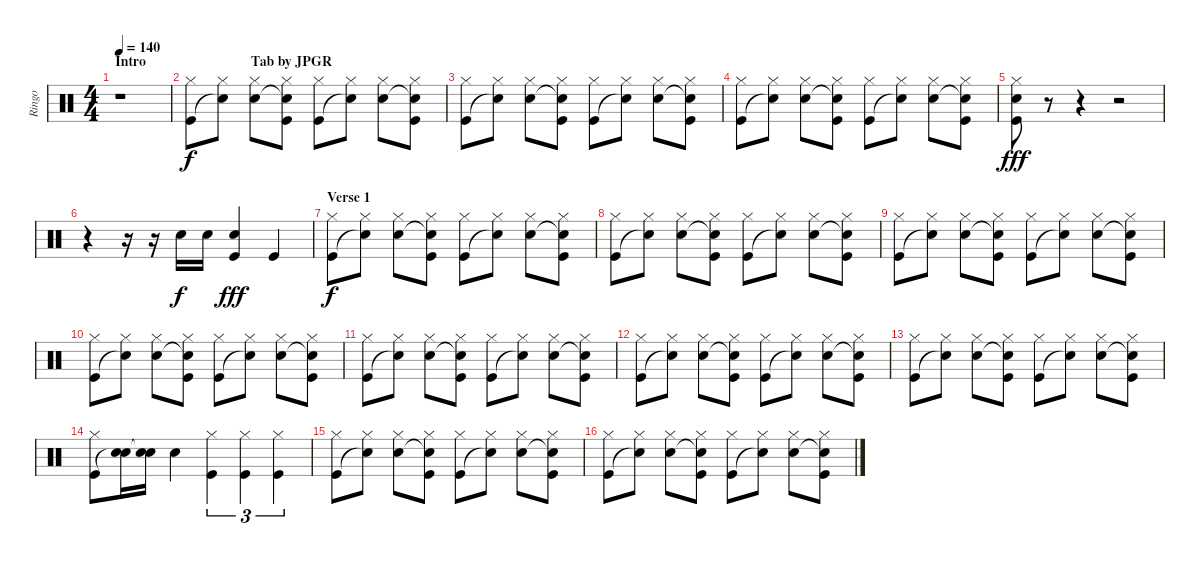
\track ("Ringo" "Ringo") {instrument percussion}
\staff {score}
\articulation defaults
\ts (4 4)
\section ("" "Intro                              Tab by JPGR")
\tempo 140
\clef neutral
\ks c
r.1{dy f} |
("Hi-Hat (closed)" "Kick (hit)").8 ("Hi-Hat (closed)" "Snare (hit)"{t}).8 ("Hi-Hat (closed)" "Snare (hit) 2").8 ("Hi-Hat (closed)" "Snare (hit)"{t} "Kick (hit)").8 ("Hi-Hat (closed)" "Kick (hit)").8 ("Hi-Hat (closed)" "Snare (hit)"{t}).8 ("Hi-Hat (closed)" "Snare (hit) 2").8 ("Hi-Hat (closed)" "Snare (hit)"{t} "Kick (hit)").8 |
("Hi-Hat (closed)" "Kick (hit)").8 ("Hi-Hat (closed)" "Snare (hit)"{t}).8 ("Hi-Hat (closed)" "Snare (hit) 2").8 ("Hi-Hat (closed)" "Snare (hit)"{t} "Kick (hit)").8 ("Hi-Hat (closed)" "Kick (hit)").8 ("Hi-Hat (closed)" "Snare (hit)"{t}).8 ("Hi-Hat (closed)" "Snare (hit) 2").8 ("Hi-Hat (closed)" "Snare (hit)"{t} "Kick (hit)").8 |
("Hi-Hat (closed)" "Kick (hit)").8 ("Hi-Hat (closed)" "Snare (hit)"{t}).8 ("Hi-Hat (closed)" "Snare (hit) 2").8 ("Hi-Hat (closed)" "Snare (hit)"{t} "Kick (hit)").8 ("Hi-Hat (closed)" "Kick (hit)").8 ("Hi-Hat (closed)" "Snare (hit)"{t}).8 ("Hi-Hat (closed)" "Snare (hit) 2").8 ("Hi-Hat (closed)" "Snare (hit)"{t} "Kick (hit)").8 |
("Hi-Hat (closed)" "Snare (hit) 2" "Kick (hit)").8{dy fff} r.8 r.4 r.2 |
r.4 r.16 r.16 "Snare (hit) 2".16{dy f} "Snare (hit) 2".16 ("Snare (hit) 2" "Kick (hit)").4{dy fff} "Kick (hit)".4 |
\section ("" "Verse 1")
("Hi-Hat (closed)" "Kick (hit)").8{dy f} ("Hi-Hat (closed)" "Snare (hit)"{t}).8 ("Hi-Hat (closed)" "Snare (hit) 2").8 ("Hi-Hat (closed)" "Snare (hit)"{t} "Kick (hit)").8 ("Hi-Hat (closed)" "Kick (hit)").8 ("Hi-Hat (closed)" "Snare (hit)"{t}).8 ("Hi-Hat (closed)" "Snare (hit) 2").8 ("Hi-Hat (closed)" "Snare (hit)"{t} "Kick (hit)").8 |
("Hi-Hat (closed)" "Kick (hit)").8 ("Hi-Hat (closed)" "Snare (hit)"{t}).8 ("Hi-Hat (closed)" "Snare (hit) 2").8 ("Hi-Hat (closed)" "Snare (hit)"{t} "Kick (hit)").8 ("Hi-Hat (closed)" "Kick (hit)").8 ("Hi-Hat (closed)" "Snare (hit)"{t}).8 ("Hi-Hat (closed)" "Snare (hit) 2").8 ("Hi-Hat (closed)" "Snare (hit)"{t} "Kick (hit)").8 |
("Hi-Hat (closed)" "Kick (hit)").8 ("Hi-Hat (closed)" "Snare (hit)"{t}).8 ("Hi-Hat (closed)" "Snare (hit) 2").8 ("Hi-Hat (closed)" "Snare (hit)"{t} "Kick (hit)").8 ("Hi-Hat (closed)" "Kick (hit)").8 ("Hi-Hat (closed)" "Snare (hit)"{t}).8 ("Hi-Hat (closed)" "Snare (hit) 2").8 ("Hi-Hat (closed)" "Snare (hit)"{t} "Kick (hit)").8 |
("Hi-Hat (closed)" "Kick (hit)").8 ("Hi-Hat (closed)" "Snare (hit)"{t}).8 ("Hi-Hat (closed)" "Snare (hit) 2").8 ("Hi-Hat (closed)" "Snare (hit)"{t} "Kick (hit)").8 ("Hi-Hat (closed)" "Kick (hit)").8 ("Hi-Hat (closed)" "Snare (hit)"{t}).8 ("Hi-Hat (closed)" "Snare (hit) 2").8 ("Hi-Hat (closed)" "Snare (hit)"{t} "Kick (hit)").8 |
("Hi-Hat (closed)" "Kick (hit)").8 ("Hi-Hat (closed)" "Snare (hit)"{t}).8 ("Hi-Hat (closed)" "Snare (hit) 2").8 ("Hi-Hat (closed)" "Snare (hit)"{t} "Kick (hit)").8 ("Hi-Hat (closed)" "Kick (hit)").8 ("Hi-Hat (closed)" "Snare (hit)"{t}).8 ("Hi-Hat (closed)" "Snare (hit) 2").8 ("Hi-Hat (closed)" "Snare (hit)"{t} "Kick (hit)").8 |
("Hi-Hat (closed)" "Kick (hit)").8 ("Hi-Hat (closed)" "Snare (hit)"{t}).8 ("Hi-Hat (closed)" "Snare (hit) 2").8 ("Hi-Hat (closed)" "Snare (hit)"{t} "Kick (hit)").8 ("Hi-Hat (closed)" "Kick (hit)").8 ("Hi-Hat (closed)" "Snare (hit)"{t}).8 ("Hi-Hat (closed)" "Snare (hit) 2").8 ("Hi-Hat (closed)" "Snare (hit)"{t} "Kick (hit)").8 |
("Hi-Hat (closed)" "Kick (hit)").8 ("Hi-Hat (closed)" "Snare (hit)"{t}).8 ("Hi-Hat (closed)" "Snare (hit) 2").8 ("Hi-Hat (closed)" "Snare (hit)"{t} "Kick (hit)").8 ("Hi-Hat (closed)" "Kick (hit)").8 ("Hi-Hat (closed)" "Snare (hit)"{t}).8 ("Hi-Hat (closed)" "Snare (hit) 2").8 ("Hi-Hat (closed)" "Snare (hit)"{t} "Kick (hit)").8 |
("Hi-Hat (closed)" "Kick (hit)").8 ("Snare (hit) 2" "Snare (hit)"{t}).16 ("Snare (hit) 2" "Snare (hit)"{t}).16 "Snare (hit) 2".4 ("Hi-Hat (closed)" "Kick (hit)").4{tu (3 2)} ("Hi-Hat (closed)" "Kick (hit)").4{tu (3 2)} ("Hi-Hat (closed)" "Kick (hit)").4{tu (3 2)} |
("Hi-Hat (closed)" "Kick (hit)").8 ("Hi-Hat (closed)" "Snare (hit)"{t}).8 ("Hi-Hat (closed)" "Snare (hit) 2").8 ("Hi-Hat (closed)" "Snare (hit)"{t} "Kick (hit)").8 ("Hi-Hat (closed)" "Kick (hit)").8 ("Hi-Hat (closed)" "Snare (hit)"{t}).8 ("Hi-Hat (closed)" "Snare (hit) 2").8 ("Hi-Hat (closed)" "Snare (hit)"{t} "Kick (hit)").8 |
("Hi-Hat (closed)" "Kick (hit)").8 ("Hi-Hat (closed)" "Snare (hit)"{t}).8 ("Hi-Hat (closed)" "Snare (hit) 2").8 ("Hi-Hat (closed)" "Snare (hit)"{t} "Kick (hit)").8 ("Hi-Hat (closed)" "Kick (hit)").8 ("Hi-Hat (closed)" "Snare (hit)"{t}).8 ("Hi-Hat (closed)" "Snare (hit) 2").8 ("Hi-Hat (closed)" "Snare (hit)"{t} "Kick (hit)").8
